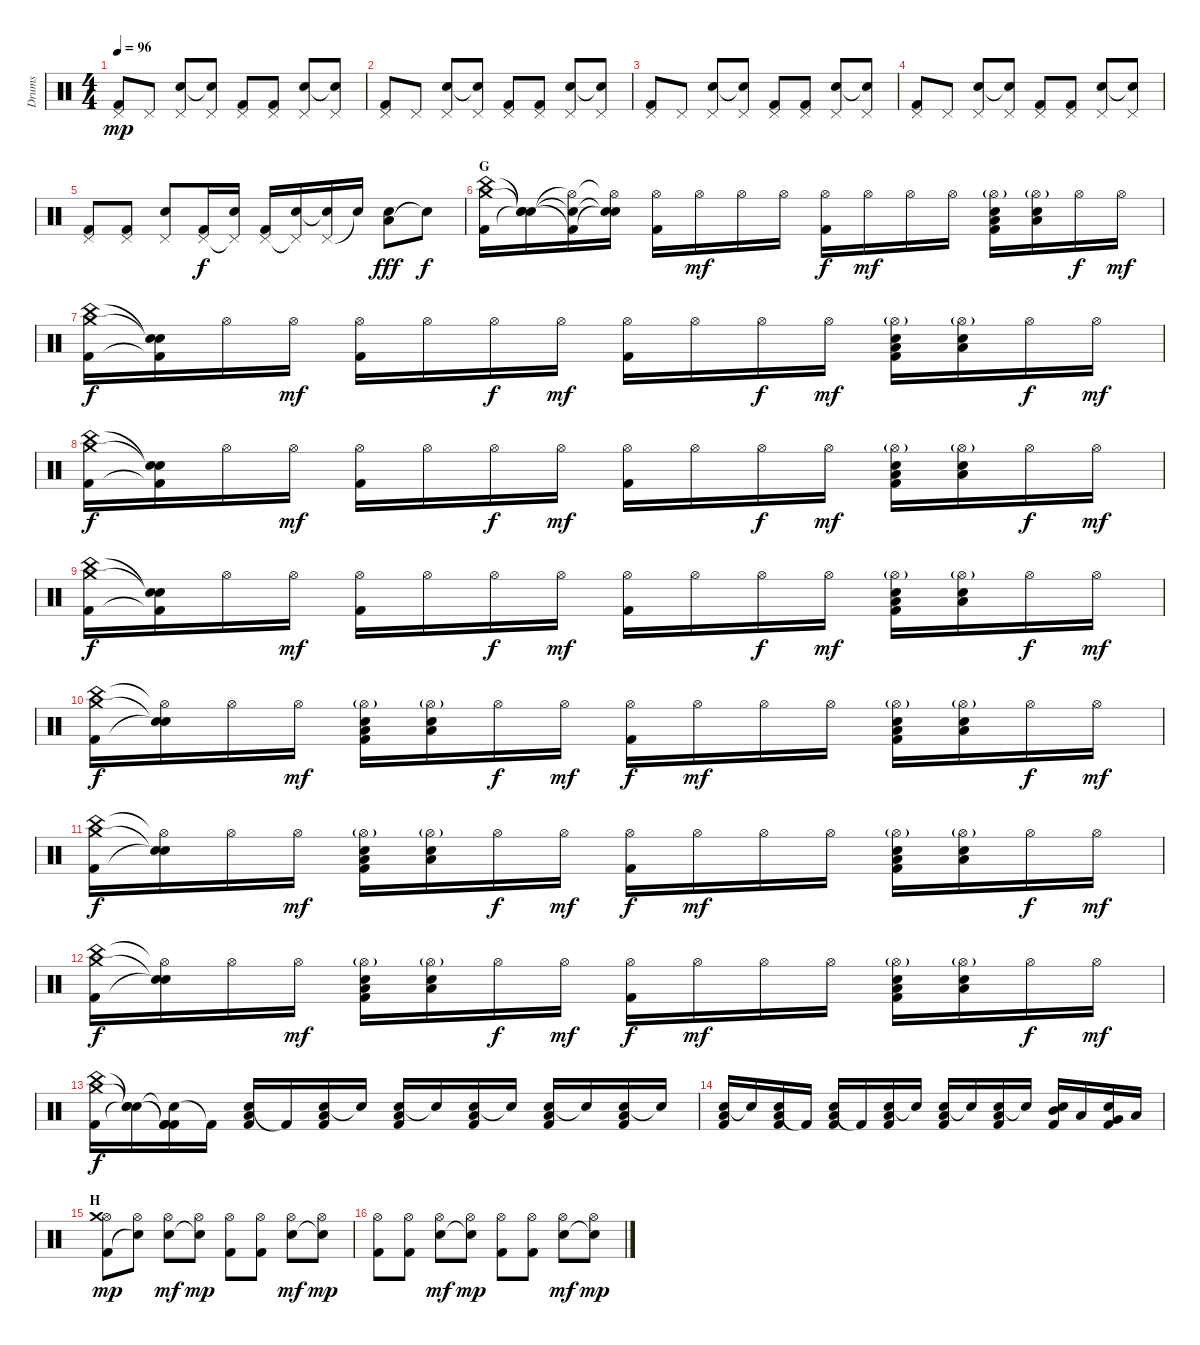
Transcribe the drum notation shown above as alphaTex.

\track ("Drums" "Drums") {instrument percussion}
\staff {score}
\articulation defaults
\ts (4 4)
\tempo 96
\clef neutral
\ks c
("Pedal Hi-Hat (hit)" "Kick (hit) 2").8{dy mp} "Pedal Hi-Hat (hit)".8 ("Pedal Hi-Hat (hit)" "Electric Snare (hit)").8 ("Pedal Hi-Hat (hit)" "Snare (hit)"{t}).8 ("Pedal Hi-Hat (hit)" "Kick (hit) 2").8 ("Pedal Hi-Hat (hit)" "Kick (hit) 2").8 ("Pedal Hi-Hat (hit)" "Electric Snare (hit)").8 ("Pedal Hi-Hat (hit)" "Snare (hit)"{t}).8 |
("Pedal Hi-Hat (hit)" "Kick (hit) 2").8 "Pedal Hi-Hat (hit)".8 ("Pedal Hi-Hat (hit)" "Electric Snare (hit)").8 ("Pedal Hi-Hat (hit)" "Snare (hit)"{t}).8 ("Pedal Hi-Hat (hit)" "Kick (hit) 2").8 ("Pedal Hi-Hat (hit)" "Kick (hit) 2").8 ("Pedal Hi-Hat (hit)" "Electric Snare (hit)").8 ("Pedal Hi-Hat (hit)" "Snare (hit)"{t}).8 |
("Pedal Hi-Hat (hit)" "Kick (hit) 2").8 "Pedal Hi-Hat (hit)".8 ("Pedal Hi-Hat (hit)" "Electric Snare (hit)").8 ("Pedal Hi-Hat (hit)" "Snare (hit)"{t}).8 ("Pedal Hi-Hat (hit)" "Kick (hit) 2").8 ("Pedal Hi-Hat (hit)" "Kick (hit) 2").8 ("Pedal Hi-Hat (hit)" "Electric Snare (hit)").8 ("Pedal Hi-Hat (hit)" "Snare (hit)"{t}).8 |
("Pedal Hi-Hat (hit)" "Kick (hit) 2").8 "Pedal Hi-Hat (hit)".8 ("Pedal Hi-Hat (hit)" "Electric Snare (hit)").8 ("Pedal Hi-Hat (hit)" "Snare (hit)"{t}).8 ("Pedal Hi-Hat (hit)" "Kick (hit) 2").8 ("Pedal Hi-Hat (hit)" "Kick (hit) 2").8 ("Pedal Hi-Hat (hit)" "Electric Snare (hit)").8 ("Pedal Hi-Hat (hit)" "Snare (hit)"{t}).8 |
("Pedal Hi-Hat (hit)" "Kick (hit) 2").8 ("Pedal Hi-Hat (hit)" "Kick (hit) 2").8 ("Pedal Hi-Hat (hit)" "Electric Snare (hit)").8 ("Pedal Hi-Hat (hit)" "Kick (hit) 2").16{dy f} ("Pedal Hi-Hat (hit)"{t} "Electric Snare (hit)").16 ("Pedal Hi-Hat (hit)" "Kick (hit) 2").16 ("Pedal Hi-Hat (hit)"{t} "Electric Snare (hit)").16 ("Pedal Hi-Hat (hit)" "Snare (hit)"{t}).16 "Snare (hit)"{t}.16 ("Low Tom (hit)" "Electric Snare (hit)").8{dy fff} "Snare (hit)"{t}.8{dy f} |
\section ("" "G")
("China (hit)" "Kick (hit) 2" "Crash medium (hit)").16 ("Snare (hit)"{t} "Snare (hit)"{t} "Snare (hit)"{t}).16 ("Hi-Hat (open)"{t} "Kick (hit) 2"{t} "Snare (hit)"{t}).16 ("Hi-Hat (open)"{t} "Snare (hit)"{t} "Snare (hit)"{t}).16 ("Hi-Hat (open)" "Kick (hit) 2").16 "Hi-Hat (open)".16{dy mf} "Hi-Hat (open)".16 "Hi-Hat (open)".16 ("Hi-Hat (open)" "Kick (hit) 2").16{dy f} "Hi-Hat (open)".16{dy mf} "Hi-Hat (open)".16 "Hi-Hat (open)".16 ("Hi-Hat (open)"{g} "Kick (hit) 2" "Electric Snare (hit)" "Low Tom (hit)").16 ("Hi-Hat (open)"{g} "Electric Snare (hit)" "Low Tom (hit)").16 "Hi-Hat (open)".16{dy f} "Hi-Hat (open)".16{dy mf} |
("China (hit)" "Kick (hit) 2" "Crash medium (hit)").16{dy f} ("Snare (hit)"{t} "Kick (hit) 2"{t} "Snare (hit)"{t}).16 "Hi-Hat (open)".16 "Hi-Hat (open)".16{dy mf} ("Hi-Hat (open)" "Kick (hit) 2").16 "Hi-Hat (open)".16 "Hi-Hat (open)".16{dy f} "Hi-Hat (open)".16{dy mf} ("Hi-Hat (open)" "Kick (hit) 2").16 "Hi-Hat (open)".16 "Hi-Hat (open)".16{dy f} "Hi-Hat (open)".16{dy mf} ("Hi-Hat (open)"{g} "Kick (hit) 2" "Electric Snare (hit)" "Low Tom (hit)").16 ("Hi-Hat (open)"{g} "Electric Snare (hit)" "Low Tom (hit)").16 "Hi-Hat (open)".16{dy f} "Hi-Hat (open)".16{dy mf} |
("China (hit)" "Kick (hit) 2" "Crash medium (hit)").16{dy f} ("Snare (hit)"{t} "Kick (hit) 2"{t} "Snare (hit)"{t}).16 "Hi-Hat (open)".16 "Hi-Hat (open)".16{dy mf} ("Hi-Hat (open)" "Kick (hit) 2").16 "Hi-Hat (open)".16 "Hi-Hat (open)".16{dy f} "Hi-Hat (open)".16{dy mf} ("Hi-Hat (open)" "Kick (hit) 2").16 "Hi-Hat (open)".16 "Hi-Hat (open)".16{dy f} "Hi-Hat (open)".16{dy mf} ("Hi-Hat (open)"{g} "Kick (hit) 2" "Electric Snare (hit)" "Low Tom (hit)").16 ("Hi-Hat (open)"{g} "Electric Snare (hit)" "Low Tom (hit)").16 "Hi-Hat (open)".16{dy f} "Hi-Hat (open)".16{dy mf} |
("China (hit)" "Kick (hit) 2" "Crash medium (hit)").16{dy f} ("Snare (hit)"{t} "Kick (hit) 2"{t} "Snare (hit)"{t}).16 "Hi-Hat (open)".16 "Hi-Hat (open)".16{dy mf} ("Hi-Hat (open)" "Kick (hit) 2").16 "Hi-Hat (open)".16 "Hi-Hat (open)".16{dy f} "Hi-Hat (open)".16{dy mf} ("Hi-Hat (open)" "Kick (hit) 2").16 "Hi-Hat (open)".16 "Hi-Hat (open)".16{dy f} "Hi-Hat (open)".16{dy mf} ("Hi-Hat (open)"{g} "Kick (hit) 2" "Electric Snare (hit)" "Low Tom (hit)").16 ("Hi-Hat (open)"{g} "Electric Snare (hit)" "Low Tom (hit)").16 "Hi-Hat (open)".16{dy f} "Hi-Hat (open)".16{dy mf} |
("China (hit)" "Kick (hit) 2" "Crash medium (hit)").16{dy f} ("Hi-Hat (open)"{t} "Snare (hit)"{t} "Snare (hit)"{t}).16 "Hi-Hat (open)".16 "Hi-Hat (open)".16{dy mf} ("Hi-Hat (open)"{g} "Kick (hit) 2" "Electric Snare (hit)" "Low Tom (hit)").16 ("Hi-Hat (open)"{g} "Electric Snare (hit)" "Low Tom (hit)").16 "Hi-Hat (open)".16{dy f} "Hi-Hat (open)".16{dy mf} ("Hi-Hat (open)" "Kick (hit) 2").16{dy f} "Hi-Hat (open)".16{dy mf} "Hi-Hat (open)".16 "Hi-Hat (open)".16 ("Hi-Hat (open)"{g} "Kick (hit) 2" "Electric Snare (hit)" "Low Tom (hit)").16 ("Hi-Hat (open)"{g} "Electric Snare (hit)" "Low Tom (hit)").16 "Hi-Hat (open)".16{dy f} "Hi-Hat (open)".16{dy mf} |
("China (hit)" "Kick (hit) 2" "Crash medium (hit)").16{dy f} ("Hi-Hat (open)"{t} "Snare (hit)"{t} "Snare (hit)"{t}).16 "Hi-Hat (open)".16 "Hi-Hat (open)".16{dy mf} ("Hi-Hat (open)"{g} "Kick (hit) 2" "Electric Snare (hit)" "Low Tom (hit)").16 ("Hi-Hat (open)"{g} "Electric Snare (hit)" "Low Tom (hit)").16 "Hi-Hat (open)".16{dy f} "Hi-Hat (open)".16{dy mf} ("Hi-Hat (open)" "Kick (hit) 2").16{dy f} "Hi-Hat (open)".16{dy mf} "Hi-Hat (open)".16 "Hi-Hat (open)".16 ("Hi-Hat (open)"{g} "Kick (hit) 2" "Electric Snare (hit)" "Low Tom (hit)").16 ("Hi-Hat (open)"{g} "Electric Snare (hit)" "Low Tom (hit)").16 "Hi-Hat (open)".16{dy f} "Hi-Hat (open)".16{dy mf} |
("China (hit)" "Kick (hit) 2" "Crash medium (hit)").16{dy f} ("Hi-Hat (open)"{t} "Snare (hit)"{t} "Snare (hit)"{t}).16 "Hi-Hat (open)".16 "Hi-Hat (open)".16{dy mf} ("Hi-Hat (open)"{g} "Kick (hit) 2" "Electric Snare (hit)" "Low Tom (hit)").16 ("Hi-Hat (open)"{g} "Electric Snare (hit)" "Low Tom (hit)").16 "Hi-Hat (open)".16{dy f} "Hi-Hat (open)".16{dy mf} ("Hi-Hat (open)" "Kick (hit) 2").16{dy f} "Hi-Hat (open)".16{dy mf} "Hi-Hat (open)".16 "Hi-Hat (open)".16 ("Hi-Hat (open)"{g} "Kick (hit) 2" "Electric Snare (hit)" "Low Tom (hit)").16 ("Hi-Hat (open)"{g} "Electric Snare (hit)" "Low Tom (hit)").16 "Hi-Hat (open)".16{dy f} "Hi-Hat (open)".16{dy mf} |
("China (hit)" "Kick (hit) 2" "Crash medium (hit)").16{dy f} ("Snare (hit)"{t} "Snare (hit)"{t} "Snare (hit)"{t}).16 ("Snare (hit)"{t} "Kick (hit) 2"{t} "Kick (hit) 2"{t} "Kick (hit) 2").16 "Kick (hit) 2"{t}.16 ("Electric Snare (hit)" "Low Tom (hit)" "Kick (hit) 2").16 "Kick (hit) 2"{t}.16 ("Electric Snare (hit)" "Low Tom (hit)" "Kick (hit) 2").16 "Snare (hit)"{t}.16 ("Electric Snare (hit)" "Low Tom (hit)" "Kick (hit) 2").16 "Snare (hit)"{t}.16 ("Electric Snare (hit)" "Low Tom (hit)" "Kick (hit) 2").16 "Snare (hit)"{t}.16 ("Electric Snare (hit)" "Low Tom (hit)" "Kick (hit) 2").16 "Snare (hit)"{t}.16 ("Electric Snare (hit)" "Low Tom (hit)" "Kick (hit) 2").16 "Snare (hit)"{t}.16 |
("Electric Snare (hit)" "Low Tom (hit)" "Kick (hit) 2").16 "Snare (hit)"{t}.16 ("Electric Snare (hit)" "Low Tom (hit)" "Kick (hit) 2").16 "Kick (hit) 2"{t}.16 ("Electric Snare (hit)" "Low Tom (hit)" "Kick (hit) 2").16 "Kick (hit) 2"{t}.16 ("Electric Snare (hit)" "Low Tom (hit)" "Kick (hit) 2").16 "Snare (hit)"{t}.16 ("Electric Snare (hit)" "Low Tom (hit)" "Kick (hit) 2").16 "Snare (hit)"{t}.16 ("Electric Snare (hit)" "Low Tom (hit)" "Kick (hit) 2").16 "Snare (hit)"{t}.16 ("Electric Snare (hit)" "Mid Tom (hit)" "Kick (hit) 2").16 "Low Tom (hit)".16 ("Electric Snare (hit)" "Very Low Tom (hit)" "Kick (hit) 2").16 "Low Floor Tom (hit)".16 |
\section ("" "H")
("Hi-Hat (open)" "Kick (hit) 2" "Crash medium (hit)").8{dy mp} ("Hi-Hat (open)" "Snare (hit)"{t}).8 ("Hi-Hat (open)" "Electric Snare (hit)").8{dy mf} ("Hi-Hat (open)" "Snare (hit)"{t}).8{dy mp} ("Hi-Hat (open)" "Kick (hit) 2").8 ("Hi-Hat (open)" "Kick (hit) 2").8 ("Hi-Hat (open)" "Electric Snare (hit)").8{dy mf} ("Hi-Hat (open)" "Snare (hit)"{t}).8{dy mp} |
("Hi-Hat (open)" "Kick (hit) 2").8 ("Hi-Hat (open)" "Kick (hit) 2").8 ("Hi-Hat (open)" "Electric Snare (hit)").8{dy mf} ("Hi-Hat (open)" "Snare (hit)"{t}).8{dy mp} ("Hi-Hat (open)" "Kick (hit) 2").8 ("Hi-Hat (open)" "Kick (hit) 2").8 ("Hi-Hat (open)" "Electric Snare (hit)").8{dy mf} ("Hi-Hat (open)" "Snare (hit)"{t}).8{dy mp}
